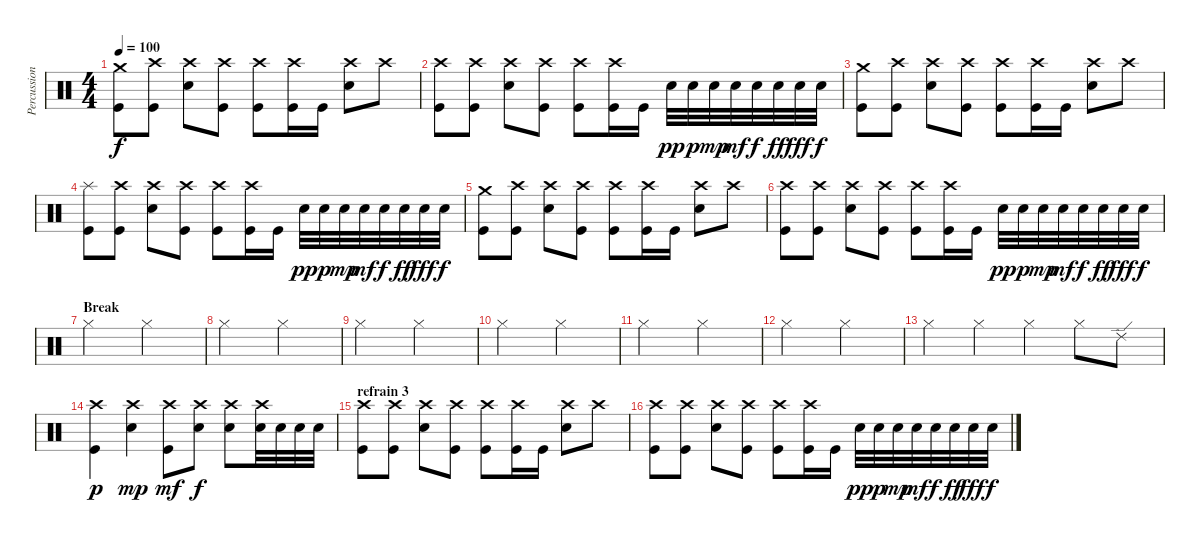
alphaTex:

\track ("Percussions" "Percussion") {instrument percussion}
\staff {score}
\articulation defaults
\ts (4 4)
\tempo 100
\clef neutral
\ks c
("Crash medium (hit)" "Kick (hit)").8{dy f} ("Crash high (hit)" "Kick (hit)").8 ("Crash high (hit)" "Electric Snare (hit)").8 ("Crash high (hit)" "Kick (hit)").8 ("Crash high (hit)" "Kick (hit)").8 ("Crash high (hit)" "Kick (hit)").16 "Kick (hit)".16 ("Crash high (hit)" "Electric Snare (hit)").8 "Crash high (hit)".8 |
("Crash high (hit)" "Kick (hit)").8 ("Crash high (hit)" "Kick (hit)").8 ("Crash high (hit)" "Electric Snare (hit)").8 ("Crash high (hit)" "Kick (hit)").8 ("Crash high (hit)" "Kick (hit)").8 ("Crash high (hit)" "Kick (hit)").16 "Kick (hit)".16 "Electric Snare (hit)".32{dy pp} "Electric Snare (hit)".32{dy p} "Electric Snare (hit)".32{dy mp} "Electric Snare (hit)".32{dy mf} "Electric Snare (hit)".32{dy f} "Electric Snare (hit)".32{dy ff} "Electric Snare (hit)".32{dy fff} "Electric Snare (hit)".32{dy f} |
("Crash medium (hit)" "Kick (hit)").8 ("Crash high (hit)" "Kick (hit)").8 ("Crash high (hit)" "Electric Snare (hit)").8 ("Crash high (hit)" "Kick (hit)").8 ("Crash high (hit)" "Kick (hit)").8 ("Crash high (hit)" "Kick (hit)").16 "Kick (hit)".16 ("Crash high (hit)" "Electric Snare (hit)").8 "Crash high (hit)".8 |
("Splash (hit)" "Kick (hit)").8 ("Crash high (hit)" "Kick (hit)").8 ("Crash high (hit)" "Electric Snare (hit)").8 ("Crash high (hit)" "Kick (hit)").8 ("Crash high (hit)" "Kick (hit)").8 ("Crash high (hit)" "Kick (hit)").16 "Kick (hit)".16 "Electric Snare (hit)".32{dy pp} "Electric Snare (hit)".32{dy p} "Electric Snare (hit)".32{dy mp} "Electric Snare (hit)".32{dy mf} "Electric Snare (hit)".32{dy f} "Electric Snare (hit)".32{dy ff} "Electric Snare (hit)".32{dy fff} "Electric Snare (hit)".32{dy f} |
("Crash medium (hit)" "Kick (hit)").8 ("Crash high (hit)" "Kick (hit)").8 ("Crash high (hit)" "Electric Snare (hit)").8 ("Crash high (hit)" "Kick (hit)").8 ("Crash high (hit)" "Kick (hit)").8 ("Crash high (hit)" "Kick (hit)").16 "Kick (hit)".16 ("Crash high (hit)" "Electric Snare (hit)").8 "Crash high (hit)".8 |
("Crash high (hit)" "Kick (hit)").8 ("Crash high (hit)" "Kick (hit)").8 ("Crash high (hit)" "Electric Snare (hit)").8 ("Crash high (hit)" "Kick (hit)").8 ("Crash high (hit)" "Kick (hit)").8 ("Crash high (hit)" "Kick (hit)").16 "Kick (hit)".16 "Electric Snare (hit)".32{dy pp} "Electric Snare (hit)".32{dy p} "Electric Snare (hit)".32{dy mp} "Electric Snare (hit)".32{dy mf} "Electric Snare (hit)".32{dy f} "Electric Snare (hit)".32{dy ff} "Electric Snare (hit)".32{dy fff} "Electric Snare (hit)".32{dy f} |
\section ("" "Break")
"Hi-Hat (closed)".2 "Hi-Hat (closed)".2 |
"Hi-Hat (closed)".2 "Hi-Hat (closed)".2 |
"Hi-Hat (closed)".2 "Hi-Hat (closed)".2 |
"Hi-Hat (closed)".2 "Hi-Hat (closed)".2 |
"Hi-Hat (closed)".2 "Hi-Hat (closed)".2 |
"Hi-Hat (closed)".2 "Hi-Hat (closed)".2 |
"Hi-Hat (closed)".4 "Hi-Hat (closed)".4 "Hi-Hat (closed)".4 "Hi-Hat (closed)".8 "Ride (edge) 2".8 |
("Crash high (hit)" "Kick (hit)").4{dy p} ("Crash high (hit)" "Electric Snare (hit)").4{dy mp} ("Crash high (hit)" "Kick (hit)").8{dy mf} ("Crash high (hit)" "Electric Snare (hit)").8{dy f} ("Crash high (hit)" "Electric Snare (hit)").8 ("Crash high (hit)" "Electric Snare (hit)").32 "Electric Snare (hit)".32 "Electric Snare (hit)".32 "Electric Snare (hit)".32 |
\section ("" "refrain 3")
("Crash high (hit)" "Kick (hit)").8 ("Crash high (hit)" "Kick (hit)").8 ("Crash high (hit)" "Electric Snare (hit)").8 ("Crash high (hit)" "Kick (hit)").8 ("Crash high (hit)" "Kick (hit)").8 ("Crash high (hit)" "Kick (hit)").16 "Kick (hit)".16 ("Crash high (hit)" "Electric Snare (hit)").8 "Crash high (hit)".8 |
("Crash high (hit)" "Kick (hit)").8 ("Crash high (hit)" "Kick (hit)").8 ("Crash high (hit)" "Electric Snare (hit)").8 ("Crash high (hit)" "Kick (hit)").8 ("Crash high (hit)" "Kick (hit)").8 ("Crash high (hit)" "Kick (hit)").16 "Kick (hit)".16 "Electric Snare (hit)".32{dy pp} "Electric Snare (hit)".32{dy p} "Electric Snare (hit)".32{dy mp} "Electric Snare (hit)".32{dy mf} "Electric Snare (hit)".32{dy f} "Electric Snare (hit)".32{dy ff} "Electric Snare (hit)".32{dy fff} "Electric Snare (hit)".32{dy f}
